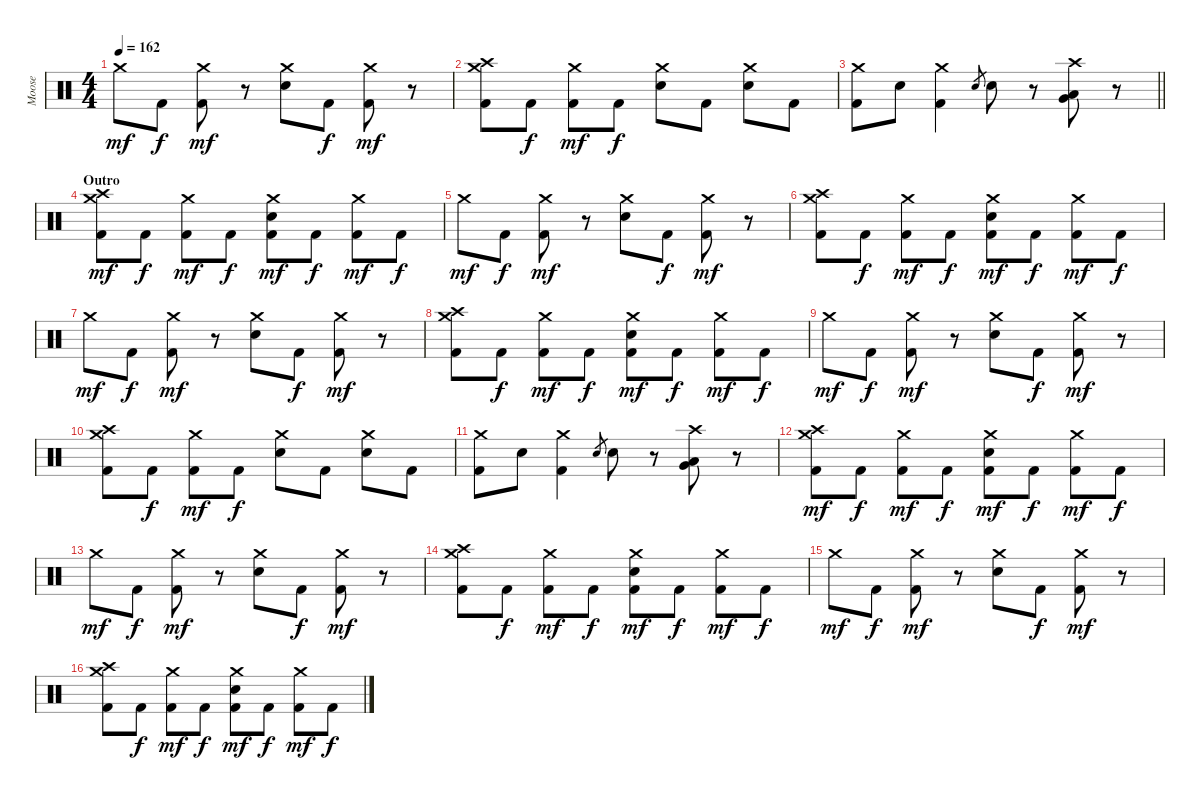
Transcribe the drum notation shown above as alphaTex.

\track ("Moose" "Moose") {instrument percussion}
\staff {score}
\articulation defaults
\ts (4 4)
\tempo 162
\clef neutral
\ks c "Crash medium (hit)".8{dy mf} "Kick (hit) 2".8{dy f}
("Kick (hit) 2" "Crash medium (hit)").8{dy mf} r.8 ("Snare (hit) 2" "Crash medium (hit)").8 "Kick (hit) 2".8{dy f} ("Kick (hit) 2" "Crash medium (hit)").8{dy mf} r.8 |
("Kick (hit) 2" "Crash high (hit)" "Crash medium (hit)").8 "Kick (hit) 2".8{dy f} ("Kick (hit) 2" "Crash medium (hit)").8{dy mf} "Kick (hit) 2".8{dy f} ("Crash medium (hit)" "Snare (hit) 2").8 "Kick (hit) 2".8 ("Crash medium (hit)" "Snare (hit) 2").8 "Kick (hit) 2".8 |
\barLineRight lightlight
("Crash medium (hit)" "Kick (hit) 2").8 "Snare (hit) 2".8 ("Crash medium (hit)" "Kick (hit) 2").4 "Snare (hit) 2".8{gr} "Snare (hit) 2".8 r.8 ("Crash high (hit)" "Very Low Tom (hit)" "Low Floor Tom (hit)").8 r.8 |
\section ("" "Outro")
("Kick (hit) 2" "Crash high (hit)" "Crash medium (hit)").8{dy mf} "Kick (hit) 2".8{dy f} ("Kick (hit) 2" "Crash medium (hit)").8{dy mf} "Kick (hit) 2".8{dy f} ("Kick (hit) 2" "Snare (hit) 2" "Crash medium (hit)").8{dy mf} "Kick (hit) 2".8{dy f} ("Kick (hit) 2" "Crash medium (hit)").8{dy mf} "Kick (hit) 2".8{dy f} |
"Crash medium (hit)".8{dy mf} "Kick (hit) 2".8{dy f} ("Kick (hit) 2" "Crash medium (hit)").8{dy mf} r.8 ("Snare (hit) 2" "Crash medium (hit)").8 "Kick (hit) 2".8{dy f} ("Kick (hit) 2" "Crash medium (hit)").8{dy mf} r.8 |
("Kick (hit) 2" "Crash high (hit)" "Crash medium (hit)").8 "Kick (hit) 2".8{dy f} ("Kick (hit) 2" "Crash medium (hit)").8{dy mf} "Kick (hit) 2".8{dy f} ("Kick (hit) 2" "Snare (hit) 2" "Crash medium (hit)").8{dy mf} "Kick (hit) 2".8{dy f} ("Kick (hit) 2" "Crash medium (hit)").8{dy mf} "Kick (hit) 2".8{dy f} |
"Crash medium (hit)".8{dy mf} "Kick (hit) 2".8{dy f} ("Kick (hit) 2" "Crash medium (hit)").8{dy mf} r.8 ("Snare (hit) 2" "Crash medium (hit)").8 "Kick (hit) 2".8{dy f} ("Kick (hit) 2" "Crash medium (hit)").8{dy mf} r.8 |
("Kick (hit) 2" "Crash high (hit)" "Crash medium (hit)").8 "Kick (hit) 2".8{dy f} ("Kick (hit) 2" "Crash medium (hit)").8{dy mf} "Kick (hit) 2".8{dy f} ("Kick (hit) 2" "Snare (hit) 2" "Crash medium (hit)").8{dy mf} "Kick (hit) 2".8{dy f} ("Kick (hit) 2" "Crash medium (hit)").8{dy mf} "Kick (hit) 2".8{dy f} |
"Crash medium (hit)".8{dy mf} "Kick (hit) 2".8{dy f} ("Kick (hit) 2" "Crash medium (hit)").8{dy mf} r.8 ("Snare (hit) 2" "Crash medium (hit)").8 "Kick (hit) 2".8{dy f} ("Kick (hit) 2" "Crash medium (hit)").8{dy mf} r.8 |
("Kick (hit) 2" "Crash high (hit)" "Crash medium (hit)").8 "Kick (hit) 2".8{dy f} ("Kick (hit) 2" "Crash medium (hit)").8{dy mf} "Kick (hit) 2".8{dy f} ("Crash medium (hit)" "Snare (hit) 2").8 "Kick (hit) 2".8 ("Crash medium (hit)" "Snare (hit) 2").8 "Kick (hit) 2".8 |
("Crash medium (hit)" "Kick (hit) 2").8 "Snare (hit) 2".8 ("Crash medium (hit)" "Kick (hit) 2").4 "Snare (hit) 2".8{gr} "Snare (hit) 2".8 r.8 ("Crash high (hit)" "Very Low Tom (hit)" "Low Floor Tom (hit)").8 r.8 |
("Kick (hit) 2" "Crash high (hit)" "Crash medium (hit)").8{dy mf} "Kick (hit) 2".8{dy f} ("Kick (hit) 2" "Crash medium (hit)").8{dy mf} "Kick (hit) 2".8{dy f} ("Kick (hit) 2" "Snare (hit) 2" "Crash medium (hit)").8{dy mf} "Kick (hit) 2".8{dy f} ("Kick (hit) 2" "Crash medium (hit)").8{dy mf} "Kick (hit) 2".8{dy f} |
"Crash medium (hit)".8{dy mf} "Kick (hit) 2".8{dy f} ("Kick (hit) 2" "Crash medium (hit)").8{dy mf} r.8 ("Snare (hit) 2" "Crash medium (hit)").8 "Kick (hit) 2".8{dy f} ("Kick (hit) 2" "Crash medium (hit)").8{dy mf} r.8 |
("Kick (hit) 2" "Crash high (hit)" "Crash medium (hit)").8 "Kick (hit) 2".8{dy f} ("Kick (hit) 2" "Crash medium (hit)").8{dy mf} "Kick (hit) 2".8{dy f} ("Kick (hit) 2" "Snare (hit) 2" "Crash medium (hit)").8{dy mf} "Kick (hit) 2".8{dy f} ("Kick (hit) 2" "Crash medium (hit)").8{dy mf} "Kick (hit) 2".8{dy f} |
"Crash medium (hit)".8{dy mf} "Kick (hit) 2".8{dy f} ("Kick (hit) 2" "Crash medium (hit)").8{dy mf} r.8 ("Snare (hit) 2" "Crash medium (hit)").8 "Kick (hit) 2".8{dy f} ("Kick (hit) 2" "Crash medium (hit)").8{dy mf} r.8 |
("Kick (hit) 2" "Crash high (hit)" "Crash medium (hit)").8 "Kick (hit) 2".8{dy f} ("Kick (hit) 2" "Crash medium (hit)").8{dy mf} "Kick (hit) 2".8{dy f} ("Kick (hit) 2" "Snare (hit) 2" "Crash medium (hit)").8{dy mf} "Kick (hit) 2".8{dy f} ("Kick (hit) 2" "Crash medium (hit)").8{dy mf} "Kick (hit) 2".8{dy f}
